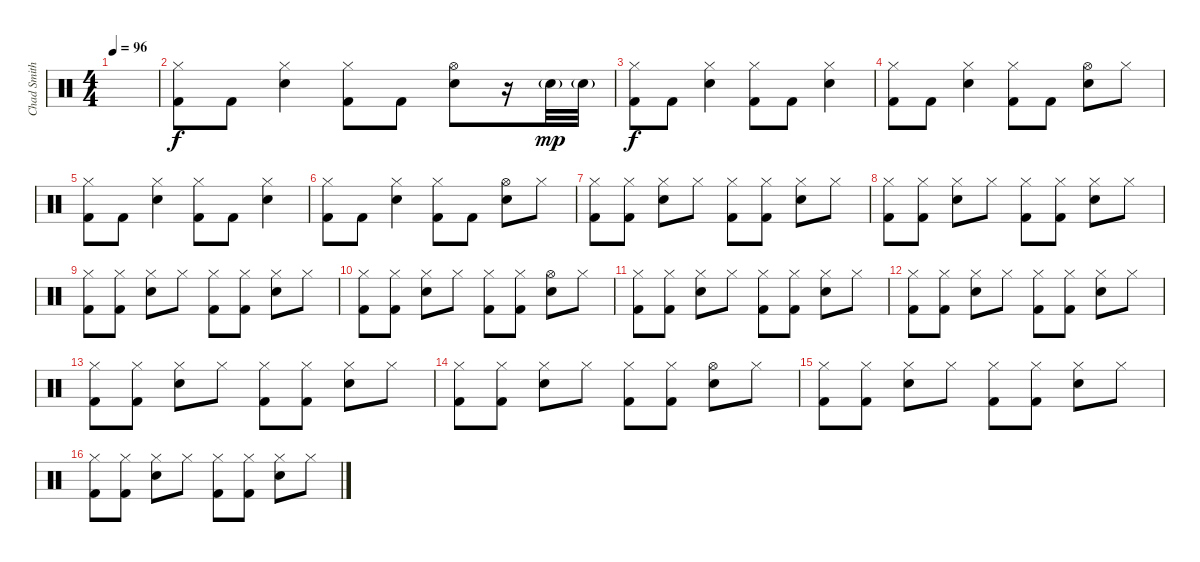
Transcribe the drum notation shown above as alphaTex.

\track ("Chad Smith" "Chad Smith") {mute instrument percussion}
\staff {score}
\articulation defaults
\ts (4 4)
\tempo 96
\clef neutral
\ks c
|
("Hi-Hat (closed)" "Kick (hit) 2").8 "Kick (hit) 2".8 ("Hi-Hat (closed)" "Snare (hit) 2").4 ("Hi-Hat (closed)" "Kick (hit) 2").8 "Kick (hit) 2".8 ("Hi-Hat (open)" "Snare (hit) 2").8 r.16 "Snare (hit) 2"{g}.32{dy mp} "Snare (hit) 2"{g}.32 |
("Hi-Hat (closed)" "Kick (hit) 2").8{dy f} "Kick (hit) 2".8 ("Hi-Hat (closed)" "Snare (hit) 2").4 ("Hi-Hat (closed)" "Kick (hit) 2").8 "Kick (hit) 2".8 ("Hi-Hat (closed)" "Snare (hit) 2").4 |
("Hi-Hat (closed)" "Kick (hit) 2").8 "Kick (hit) 2".8 ("Hi-Hat (closed)" "Snare (hit) 2").4 ("Hi-Hat (closed)" "Kick (hit) 2").8 "Kick (hit) 2".8 ("Hi-Hat (open)" "Snare (hit) 2").8 "Hi-Hat (closed)".8 |
("Hi-Hat (closed)" "Kick (hit) 2").8 "Kick (hit) 2".8 ("Hi-Hat (closed)" "Snare (hit) 2").4 ("Hi-Hat (closed)" "Kick (hit) 2").8 "Kick (hit) 2".8 ("Hi-Hat (closed)" "Snare (hit) 2").4 |
("Hi-Hat (closed)" "Kick (hit) 2").8 "Kick (hit) 2".8 ("Hi-Hat (closed)" "Snare (hit) 2").4 ("Hi-Hat (closed)" "Kick (hit) 2").8 "Kick (hit) 2".8 ("Hi-Hat (open)" "Snare (hit) 2").8 "Hi-Hat (closed)".8 |
("Hi-Hat (closed)" "Kick (hit) 2").8 ("Hi-Hat (closed)" "Kick (hit) 2").8 ("Hi-Hat (closed)" "Snare (hit) 2").8 "Hi-Hat (closed)".8 ("Hi-Hat (closed)" "Kick (hit) 2").8 ("Hi-Hat (closed)" "Kick (hit) 2").8 ("Hi-Hat (closed)" "Snare (hit) 2").8 "Hi-Hat (closed)".8 |
("Hi-Hat (closed)" "Kick (hit) 2").8 ("Hi-Hat (closed)" "Kick (hit) 2").8 ("Hi-Hat (closed)" "Snare (hit) 2").8 "Hi-Hat (closed)".8 ("Hi-Hat (closed)" "Kick (hit) 2").8 ("Hi-Hat (closed)" "Kick (hit) 2").8 ("Hi-Hat (closed)" "Snare (hit) 2").8 "Hi-Hat (closed)".8 |
("Hi-Hat (closed)" "Kick (hit) 2").8 ("Hi-Hat (closed)" "Kick (hit) 2").8 ("Hi-Hat (closed)" "Snare (hit) 2").8 "Hi-Hat (closed)".8 ("Hi-Hat (closed)" "Kick (hit) 2").8 ("Hi-Hat (closed)" "Kick (hit) 2").8 ("Hi-Hat (closed)" "Snare (hit) 2").8 "Hi-Hat (closed)".8 |
("Hi-Hat (closed)" "Kick (hit) 2").8 ("Hi-Hat (closed)" "Kick (hit) 2").8 ("Hi-Hat (closed)" "Snare (hit) 2").8 "Hi-Hat (closed)".8 ("Hi-Hat (closed)" "Kick (hit) 2").8 ("Hi-Hat (closed)" "Kick (hit) 2").8 ("Hi-Hat (open)" "Snare (hit) 2").8 "Hi-Hat (closed)".8 |
("Hi-Hat (closed)" "Kick (hit) 2").8 ("Hi-Hat (closed)" "Kick (hit) 2").8 ("Hi-Hat (closed)" "Snare (hit) 2").8 "Hi-Hat (closed)".8 ("Hi-Hat (closed)" "Kick (hit) 2").8 ("Hi-Hat (closed)" "Kick (hit) 2").8 ("Hi-Hat (closed)" "Snare (hit) 2").8 "Hi-Hat (closed)".8 |
("Hi-Hat (closed)" "Kick (hit) 2").8 ("Hi-Hat (closed)" "Kick (hit) 2").8 ("Hi-Hat (closed)" "Snare (hit) 2").8 "Hi-Hat (closed)".8 ("Hi-Hat (closed)" "Kick (hit) 2").8 ("Hi-Hat (closed)" "Kick (hit) 2").8 ("Hi-Hat (closed)" "Snare (hit) 2").8 "Hi-Hat (closed)".8 |
("Hi-Hat (closed)" "Kick (hit) 2").8 ("Hi-Hat (closed)" "Kick (hit) 2").8 ("Hi-Hat (closed)" "Snare (hit) 2").8 "Hi-Hat (closed)".8 ("Hi-Hat (closed)" "Kick (hit) 2").8 ("Hi-Hat (closed)" "Kick (hit) 2").8 ("Hi-Hat (closed)" "Snare (hit) 2").8 "Hi-Hat (closed)".8 |
("Hi-Hat (closed)" "Kick (hit) 2").8 ("Hi-Hat (closed)" "Kick (hit) 2").8 ("Hi-Hat (closed)" "Snare (hit) 2").8 "Hi-Hat (closed)".8 ("Hi-Hat (closed)" "Kick (hit) 2").8 ("Hi-Hat (closed)" "Kick (hit) 2").8 ("Hi-Hat (open)" "Snare (hit) 2").8 "Hi-Hat (closed)".8 |
("Hi-Hat (closed)" "Kick (hit) 2").8 ("Hi-Hat (closed)" "Kick (hit) 2").8 ("Hi-Hat (closed)" "Snare (hit) 2").8 "Hi-Hat (closed)".8 ("Hi-Hat (closed)" "Kick (hit) 2").8 ("Hi-Hat (closed)" "Kick (hit) 2").8 ("Hi-Hat (closed)" "Snare (hit) 2").8 "Hi-Hat (closed)".8 |
("Hi-Hat (closed)" "Kick (hit) 2").8 ("Hi-Hat (closed)" "Kick (hit) 2").8 ("Hi-Hat (closed)" "Snare (hit) 2").8 "Hi-Hat (closed)".8 ("Hi-Hat (closed)" "Kick (hit) 2").8 ("Hi-Hat (closed)" "Kick (hit) 2").8 ("Hi-Hat (closed)" "Snare (hit) 2").8 "Hi-Hat (closed)".8
